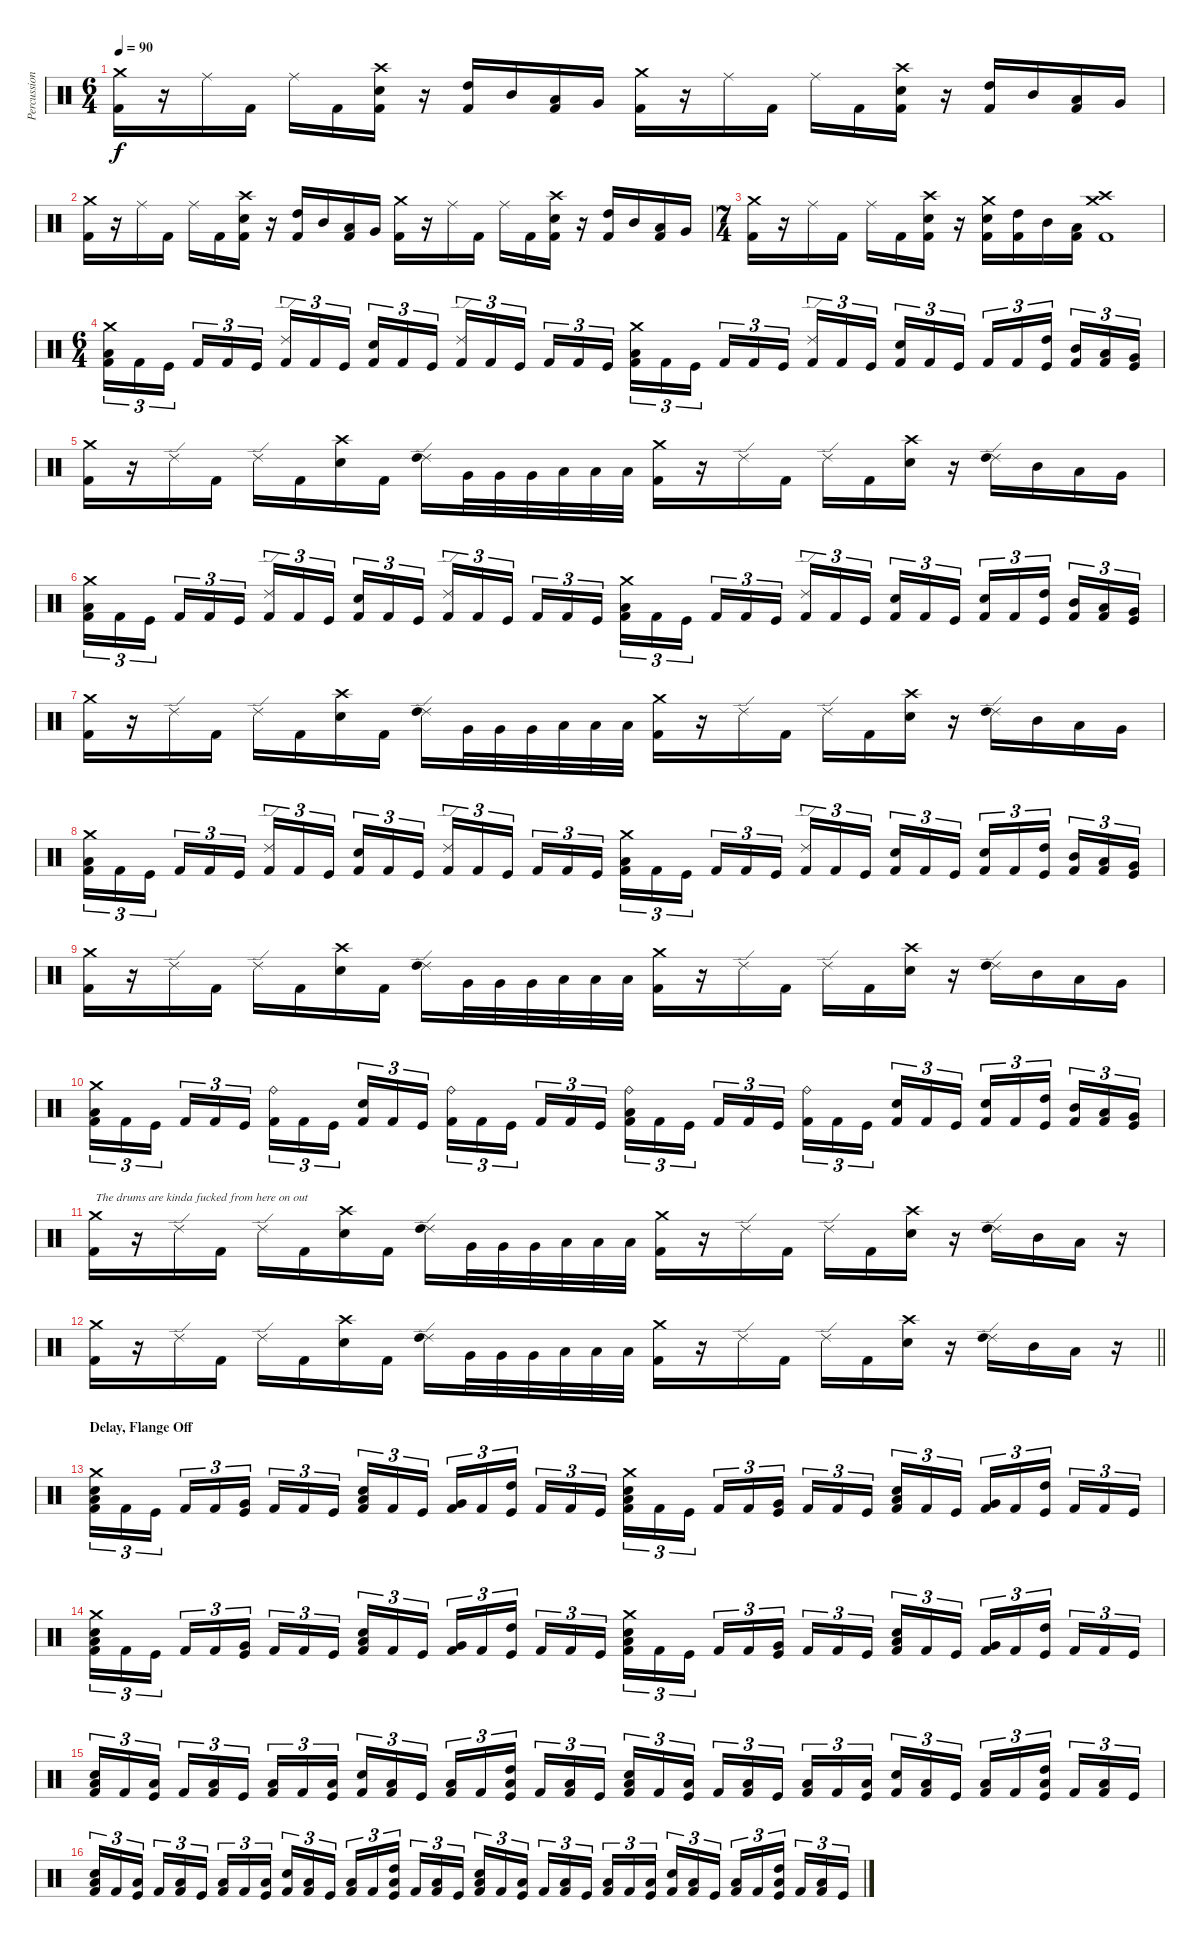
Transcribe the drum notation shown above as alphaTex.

\track ("Percussion" "Percussion") {instrument percussion}
\staff {score}
\articulation defaults
\ts (6 4)
\tempo 90
\clef neutral
\ks c
("Crash medium (hit)" "Kick (hit) 2").16{dy f} r.16 "Ride (middle)".16 "Kick (hit) 2".16 "Ride (middle)".16 "Kick (hit) 2".16 ("Crash high (hit)" "Electric Snare (hit)" "Kick (hit) 2").16 r.16 ("High Tom (hit)" "Kick (hit) 2").16 "Mid Tom (hit)".16 ("Low Tom (hit)" "Kick (hit) 2").16 "Very Low Tom (hit)".16 ("Crash medium (hit)" "Kick (hit) 2").16 r.16 "Ride (middle)".16 "Kick (hit) 2".16 "Ride (middle)".16 "Kick (hit) 2".16 ("Crash high (hit)" "Electric Snare (hit)" "Kick (hit) 2").16 r.16 ("High Tom (hit)" "Kick (hit) 2").16 "Mid Tom (hit)".16 ("Low Tom (hit)" "Kick (hit) 2").16 "Very Low Tom (hit)".16 |
("Crash medium (hit)" "Kick (hit) 2").16 r.16 "Ride (middle)".16 "Kick (hit) 2".16 "Ride (middle)".16 "Kick (hit) 2".16 ("Crash high (hit)" "Electric Snare (hit)" "Kick (hit) 2").16 r.16 ("High Tom (hit)" "Kick (hit) 2").16 "Mid Tom (hit)".16 ("Low Tom (hit)" "Kick (hit) 2").16 "Very Low Tom (hit)".16 ("Crash medium (hit)" "Kick (hit) 2").16 r.16 "Ride (middle)".16 "Kick (hit) 2".16 "Ride (middle)".16 "Kick (hit) 2".16 ("Crash high (hit)" "Electric Snare (hit)" "Kick (hit) 2").16 r.16 ("High Tom (hit)" "Kick (hit) 2").16 "Mid Tom (hit)".16 ("Low Tom (hit)" "Kick (hit) 2").16 "Very Low Tom (hit)".16 |
\ts (7 4)
("Crash medium (hit)" "Kick (hit) 2").16 r.16 "Ride (middle)".16 "Kick (hit) 2".16 "Ride (middle)".16 "Kick (hit) 2".16 ("Crash high (hit)" "Electric Snare (hit)" "Kick (hit) 2").16 r.16 ("Crash medium (hit)" "Electric Snare (hit)" "Kick (hit) 2").16 ("High Tom (hit)" "Kick (hit) 2").16 "Mid Tom (hit)".16 ("Low Tom (hit)" "Kick (hit) 2").16 ("Crash medium (hit)" "Crash high (hit)" "Kick (hit) 2").1 |
\ts (6 4)
("Crash medium (hit)" "Low Floor Tom (hit)" "Kick (hit) 2").16{tu (3 2)} "Kick (hit) 2".16{tu (3 2)} "Kick (hit)".16{tu (3 2)} "Kick (hit) 2".16{tu (3 2)} "Kick (hit) 2".16{tu (3 2)} "Kick (hit)".16{tu (3 2)} ("Ride (edge) 2" "Kick (hit) 2").16{tu (3 2)} "Kick (hit) 2".16{tu (3 2)} "Kick (hit)".16{tu (3 2)} ("Electric Snare (hit)" "Kick (hit) 2").16{tu (3 2)} "Kick (hit) 2".16{tu (3 2)} "Kick (hit)".16{tu (3 2)} ("Ride (edge) 2" "Kick (hit) 2").16{tu (3 2)} "Kick (hit) 2".16{tu (3 2)} "Kick (hit)".16{tu (3 2)} "Kick (hit) 2".16{tu (3 2)} "Kick (hit) 2".16{tu (3 2)} "Kick (hit)".16{tu (3 2)} ("Crash medium (hit)" "Low Floor Tom (hit)" "Kick (hit) 2").16{tu (3 2)} "Kick (hit) 2".16{tu (3 2)} "Kick (hit)".16{tu (3 2)} "Kick (hit) 2".16{tu (3 2)} "Kick (hit) 2".16{tu (3 2)} "Kick (hit)".16{tu (3 2)} ("Ride (edge) 2" "Kick (hit) 2").16{tu (3 2)} "Kick (hit) 2".16{tu (3 2)} "Kick (hit)".16{tu (3 2)} ("Electric Snare (hit)" "Kick (hit) 2").16{tu (3 2)} "Kick (hit) 2".16{tu (3 2)} "Kick (hit)".16{tu (3 2)} "Kick (hit) 2".16{tu (3 2)} "Kick (hit) 2".16{tu (3 2)} ("High Tom (hit)" "Kick (hit)").16{tu (3 2)} ("Mid Tom (hit)" "Kick (hit) 2").16{tu (3 2)} ("Low Tom (hit)" "Kick (hit) 2").16{tu (3 2)} ("Very Low Tom (hit)" "Kick (hit)").16{tu (3 2)} |
("Crash medium (hit)" "Kick (hit) 2").16 r.16 "Ride (edge) 2".16 "Kick (hit) 2".16 "Ride (edge) 2".16 "Kick (hit) 2".16 ("Crash high (hit)" "Electric Snare (hit)").16 "Kick (hit) 2".16 ("Ride (edge) 2" "High Tom (hit)").16 "Very Low Tom (hit)".32 "Very Low Tom (hit)".32 "Very Low Tom (hit)".32 "Low Floor Tom (hit)".32 "Low Floor Tom (hit)".32 "Low Floor Tom (hit)".32 ("Crash medium (hit)" "Kick (hit) 2").16 r.16 "Ride (edge) 2".16 "Kick (hit) 2".16 "Ride (edge) 2".16 "Kick (hit) 2".16 ("Crash high (hit)" "Electric Snare (hit)").16 r.16 ("Ride (edge) 2" "High Tom (hit)").16 "Mid Tom (hit)".16 "Low Tom (hit)".16 "Very Low Tom (hit)".16 |
("Crash medium (hit)" "Low Floor Tom (hit)" "Kick (hit) 2").16{tu (3 2)} "Kick (hit) 2".16{tu (3 2)} "Kick (hit)".16{tu (3 2)} "Kick (hit) 2".16{tu (3 2)} "Kick (hit) 2".16{tu (3 2)} "Kick (hit)".16{tu (3 2)} ("Ride (edge) 2" "Kick (hit) 2").16{tu (3 2)} "Kick (hit) 2".16{tu (3 2)} "Kick (hit)".16{tu (3 2)} ("Electric Snare (hit)" "Kick (hit) 2").16{tu (3 2)} "Kick (hit) 2".16{tu (3 2)} "Kick (hit)".16{tu (3 2)} ("Ride (edge) 2" "Kick (hit) 2").16{tu (3 2)} "Kick (hit) 2".16{tu (3 2)} "Kick (hit)".16{tu (3 2)} "Kick (hit) 2".16{tu (3 2)} "Kick (hit) 2".16{tu (3 2)} "Kick (hit)".16{tu (3 2)} ("Crash medium (hit)" "Low Floor Tom (hit)" "Kick (hit) 2").16{tu (3 2)} "Kick (hit) 2".16{tu (3 2)} "Kick (hit)".16{tu (3 2)} "Kick (hit) 2".16{tu (3 2)} "Kick (hit) 2".16{tu (3 2)} "Kick (hit)".16{tu (3 2)} ("Ride (edge) 2" "Kick (hit) 2").16{tu (3 2)} "Kick (hit) 2".16{tu (3 2)} "Kick (hit)".16{tu (3 2)} ("Electric Snare (hit)" "Kick (hit) 2").16{tu (3 2)} "Kick (hit) 2".16{tu (3 2)} "Kick (hit)".16{tu (3 2)} ("Electric Snare (hit)" "Kick (hit) 2").16{tu (3 2)} "Kick (hit) 2".16{tu (3 2)} ("High Tom (hit)" "Kick (hit)").16{tu (3 2)} ("Mid Tom (hit)" "Kick (hit) 2").16{tu (3 2)} ("Low Tom (hit)" "Kick (hit) 2").16{tu (3 2)} ("Very Low Tom (hit)" "Kick (hit)").16{tu (3 2)} |
("Crash medium (hit)" "Kick (hit) 2").16 r.16 "Ride (edge) 2".16 "Kick (hit) 2".16 "Ride (edge) 2".16 "Kick (hit) 2".16 ("Crash high (hit)" "Electric Snare (hit)").16 "Kick (hit) 2".16 ("Ride (edge) 2" "High Tom (hit)").16 "Very Low Tom (hit)".32 "Very Low Tom (hit)".32 "Very Low Tom (hit)".32 "Low Floor Tom (hit)".32 "Low Floor Tom (hit)".32 "Low Floor Tom (hit)".32 ("Crash medium (hit)" "Kick (hit) 2").16 r.16 "Ride (edge) 2".16 "Kick (hit) 2".16 "Ride (edge) 2".16 "Kick (hit) 2".16 ("Crash high (hit)" "Electric Snare (hit)").16 r.16 ("Ride (edge) 2" "High Tom (hit)").16 "Mid Tom (hit)".16 "Low Tom (hit)".16 "Very Low Tom (hit)".16 |
("Crash medium (hit)" "Low Floor Tom (hit)" "Kick (hit) 2").16{tu (3 2)} "Kick (hit) 2".16{tu (3 2)} "Kick (hit)".16{tu (3 2)} "Kick (hit) 2".16{tu (3 2)} "Kick (hit) 2".16{tu (3 2)} "Kick (hit)".16{tu (3 2)} ("Ride (edge) 2" "Kick (hit) 2").16{tu (3 2)} "Kick (hit) 2".16{tu (3 2)} "Kick (hit)".16{tu (3 2)} ("Electric Snare (hit)" "Kick (hit) 2").16{tu (3 2)} "Kick (hit) 2".16{tu (3 2)} "Kick (hit)".16{tu (3 2)} ("Ride (edge) 2" "Kick (hit) 2").16{tu (3 2)} "Kick (hit) 2".16{tu (3 2)} "Kick (hit)".16{tu (3 2)} "Kick (hit) 2".16{tu (3 2)} "Kick (hit) 2".16{tu (3 2)} "Kick (hit)".16{tu (3 2)} ("Crash medium (hit)" "Low Floor Tom (hit)" "Kick (hit) 2").16{tu (3 2)} "Kick (hit) 2".16{tu (3 2)} "Kick (hit)".16{tu (3 2)} "Kick (hit) 2".16{tu (3 2)} "Kick (hit) 2".16{tu (3 2)} "Kick (hit)".16{tu (3 2)} ("Ride (edge) 2" "Kick (hit) 2").16{tu (3 2)} "Kick (hit) 2".16{tu (3 2)} "Kick (hit)".16{tu (3 2)} ("Electric Snare (hit)" "Kick (hit) 2").16{tu (3 2)} "Kick (hit) 2".16{tu (3 2)} "Kick (hit)".16{tu (3 2)} ("Electric Snare (hit)" "Kick (hit) 2").16{tu (3 2)} "Kick (hit) 2".16{tu (3 2)} ("High Tom (hit)" "Kick (hit)").16{tu (3 2)} ("Mid Tom (hit)" "Kick (hit) 2").16{tu (3 2)} ("Low Tom (hit)" "Kick (hit) 2").16{tu (3 2)} ("Very Low Tom (hit)" "Kick (hit)").16{tu (3 2)} |
("Crash medium (hit)" "Kick (hit) 2").16 r.16 "Ride (edge) 2".16 "Kick (hit) 2".16 "Ride (edge) 2".16 "Kick (hit) 2".16 ("Crash high (hit)" "Electric Snare (hit)").16 "Kick (hit) 2".16 ("Ride (edge) 2" "High Tom (hit)").16 "Very Low Tom (hit)".32 "Very Low Tom (hit)".32 "Very Low Tom (hit)".32 "Low Floor Tom (hit)".32 "Low Floor Tom (hit)".32 "Low Floor Tom (hit)".32 ("Crash medium (hit)" "Kick (hit) 2").16 r.16 "Ride (edge) 2".16 "Kick (hit) 2".16 "Ride (edge) 2".16 "Kick (hit) 2".16 ("Crash high (hit)" "Electric Snare (hit)").16 r.16 ("Ride (edge) 2" "High Tom (hit)").16 "Mid Tom (hit)".16 "Low Tom (hit)".16 "Very Low Tom (hit)".16 |
("Crash medium (hit)" "Low Floor Tom (hit)" "Kick (hit) 2").16{tu (3 2)} "Kick (hit) 2".16{tu (3 2)} "Kick (hit)".16{tu (3 2)} "Kick (hit) 2".16{tu (3 2)} "Kick (hit) 2".16{tu (3 2)} "Kick (hit)".16{tu (3 2)} ("Ride (bell)" "Kick (hit) 2").16{tu (3 2)} "Kick (hit) 2".16{tu (3 2)} "Kick (hit)".16{tu (3 2)} ("Electric Snare (hit)" "Kick (hit) 2").16{tu (3 2)} "Kick (hit) 2".16{tu (3 2)} "Kick (hit)".16{tu (3 2)} ("Ride (bell)" "Kick (hit) 2").16{tu (3 2)} "Kick (hit) 2".16{tu (3 2)} "Kick (hit)".16{tu (3 2)} "Kick (hit) 2".16{tu (3 2)} "Kick (hit) 2".16{tu (3 2)} "Kick (hit)".16{tu (3 2)} ("Ride (bell)" "Low Floor Tom (hit)" "Kick (hit) 2").16{tu (3 2)} "Kick (hit) 2".16{tu (3 2)} "Kick (hit)".16{tu (3 2)} "Kick (hit) 2".16{tu (3 2)} "Kick (hit) 2".16{tu (3 2)} "Kick (hit)".16{tu (3 2)} ("Ride (bell)" "Kick (hit) 2").16{tu (3 2)} "Kick (hit) 2".16{tu (3 2)} "Kick (hit)".16{tu (3 2)} ("Electric Snare (hit)" "Kick (hit) 2").16{tu (3 2)} "Kick (hit) 2".16{tu (3 2)} "Kick (hit)".16{tu (3 2)} ("Electric Snare (hit)" "Kick (hit) 2").16{tu (3 2)} "Kick (hit) 2".16{tu (3 2)} ("High Tom (hit)" "Kick (hit)").16{tu (3 2)} ("Mid Tom (hit)" "Kick (hit) 2").16{tu (3 2)} ("Low Tom (hit)" "Kick (hit) 2").16{tu (3 2)} ("Very Low Tom (hit)" "Kick (hit)").16{tu (3 2)} |
("Crash medium (hit)" "Kick (hit) 2").16{txt "The drums are kinda fucked from here on out"} r.16 "Ride (edge) 2".16 "Kick (hit) 2".16 "Ride (edge) 2".16 "Kick (hit) 2".16 ("Crash high (hit)" "Electric Snare (hit)").16 "Kick (hit) 2".16 ("Ride (edge) 2" "High Tom (hit)").16 "Very Low Tom (hit)".32 "Very Low Tom (hit)".32 "Very Low Tom (hit)".32 "Low Floor Tom (hit)".32 "Low Floor Tom (hit)".32 "Low Floor Tom (hit)".32 ("Crash medium (hit)" "Kick (hit) 2").16 r.16 "Ride (edge) 2".16 "Kick (hit) 2".16 "Ride (edge) 2".16 "Kick (hit) 2".16 ("Crash high (hit)" "Electric Snare (hit)").16 r.16 ("Ride (edge) 2" "High Tom (hit)").16 "Mid Tom (hit)".16 "Low Tom (hit)".16 r.16 |
\barLineRight lightlight
("Crash medium (hit)" "Kick (hit) 2").16 r.16 "Ride (edge) 2".16 "Kick (hit) 2".16 "Ride (edge) 2".16 "Kick (hit) 2".16 ("Crash high (hit)" "Electric Snare (hit)").16 "Kick (hit) 2".16 ("Ride (edge) 2" "High Tom (hit)").16 "Very Low Tom (hit)".32 "Very Low Tom (hit)".32 "Very Low Tom (hit)".32 "Low Floor Tom (hit)".32 "Low Floor Tom (hit)".32 "Low Floor Tom (hit)".32 ("Crash medium (hit)" "Kick (hit) 2").16 r.16 "Ride (edge) 2".16 "Kick (hit) 2".16 "Ride (edge) 2".16 "Kick (hit) 2".16 ("Crash high (hit)" "Electric Snare (hit)").16 r.16 ("Ride (edge) 2" "High Tom (hit)").16 "Mid Tom (hit)".16 "Low Tom (hit)".16 r.16 |
\section ("" "Delay, Flange Off")
("Crash medium (hit)" "Low Floor Tom (hit)" "Electric Snare (hit)" "Kick (hit) 2").16{tu (3 2)} "Kick (hit) 2".16{tu (3 2)} "Kick (hit)".16{tu (3 2)} "Kick (hit) 2".16{tu (3 2)} "Kick (hit) 2".16{tu (3 2)} ("Very Low Tom (hit)" "Kick (hit)").16{tu (3 2)} "Kick (hit) 2".16{tu (3 2)} "Kick (hit) 2".16{tu (3 2)} "Kick (hit)".16{tu (3 2)} ("Low Floor Tom (hit)" "Electric Snare (hit)" "Kick (hit) 2").16{tu (3 2)} "Kick (hit) 2".16{tu (3 2)} "Kick (hit)".16{tu (3 2)} ("Very Low Tom (hit)" "Kick (hit) 2").16{tu (3 2)} "Kick (hit) 2".16{tu (3 2)} ("High Tom (hit)" "Kick (hit)").16{tu (3 2)} "Kick (hit) 2".16{tu (3 2)} "Kick (hit) 2".16{tu (3 2)} "Kick (hit)".16{tu (3 2)} ("Crash medium (hit)" "Low Floor Tom (hit)" "Electric Snare (hit)" "Kick (hit) 2").16{tu (3 2)} "Kick (hit) 2".16{tu (3 2)} "Kick (hit)".16{tu (3 2)} "Kick (hit) 2".16{tu (3 2)} "Kick (hit) 2".16{tu (3 2)} ("Very Low Tom (hit)" "Kick (hit)").16{tu (3 2)} "Kick (hit) 2".16{tu (3 2)} "Kick (hit) 2".16{tu (3 2)} "Kick (hit)".16{tu (3 2)} ("Low Floor Tom (hit)" "Electric Snare (hit)" "Kick (hit) 2").16{tu (3 2)} "Kick (hit) 2".16{tu (3 2)} "Kick (hit)".16{tu (3 2)} ("Very Low Tom (hit)" "Kick (hit) 2").16{tu (3 2)} "Kick (hit) 2".16{tu (3 2)} ("High Tom (hit)" "Kick (hit)").16{tu (3 2)} "Kick (hit) 2".16{tu (3 2)} "Kick (hit) 2".16{tu (3 2)} "Kick (hit)".16{tu (3 2)} |
("Crash medium (hit)" "Low Floor Tom (hit)" "Electric Snare (hit)" "Kick (hit) 2").16{tu (3 2)} "Kick (hit) 2".16{tu (3 2)} "Kick (hit)".16{tu (3 2)} "Kick (hit) 2".16{tu (3 2)} "Kick (hit) 2".16{tu (3 2)} ("Very Low Tom (hit)" "Kick (hit)").16{tu (3 2)} "Kick (hit) 2".16{tu (3 2)} "Kick (hit) 2".16{tu (3 2)} "Kick (hit)".16{tu (3 2)} ("Low Floor Tom (hit)" "Electric Snare (hit)" "Kick (hit) 2").16{tu (3 2)} "Kick (hit) 2".16{tu (3 2)} "Kick (hit)".16{tu (3 2)} ("Very Low Tom (hit)" "Kick (hit) 2").16{tu (3 2)} "Kick (hit) 2".16{tu (3 2)} ("High Tom (hit)" "Kick (hit)").16{tu (3 2)} "Kick (hit) 2".16{tu (3 2)} "Kick (hit) 2".16{tu (3 2)} "Kick (hit)".16{tu (3 2)} ("Crash medium (hit)" "Low Floor Tom (hit)" "Electric Snare (hit)" "Kick (hit) 2").16{tu (3 2)} "Kick (hit) 2".16{tu (3 2)} "Kick (hit)".16{tu (3 2)} "Kick (hit) 2".16{tu (3 2)} "Kick (hit) 2".16{tu (3 2)} ("Very Low Tom (hit)" "Kick (hit)").16{tu (3 2)} "Kick (hit) 2".16{tu (3 2)} "Kick (hit) 2".16{tu (3 2)} "Kick (hit)".16{tu (3 2)} ("Low Floor Tom (hit)" "Electric Snare (hit)" "Kick (hit) 2").16{tu (3 2)} "Kick (hit) 2".16{tu (3 2)} "Kick (hit)".16{tu (3 2)} ("Very Low Tom (hit)" "Kick (hit) 2").16{tu (3 2)} "Kick (hit) 2".16{tu (3 2)} ("High Tom (hit)" "Kick (hit)").16{tu (3 2)} "Kick (hit) 2".16{tu (3 2)} "Kick (hit) 2".16{tu (3 2)} "Kick (hit)".16{tu (3 2)} |
("Low Floor Tom (hit)" "Electric Snare (hit)" "Kick (hit) 2").16{tu (3 2)} "Kick (hit) 2".16{tu (3 2)} ("Low Floor Tom (hit)" "Kick (hit)").16{tu (3 2)} "Kick (hit) 2".16{tu (3 2)} ("Low Floor Tom (hit)" "Kick (hit) 2").16{tu (3 2)} "Kick (hit)".16{tu (3 2)} ("Low Floor Tom (hit)" "Kick (hit) 2").16{tu (3 2)} "Kick (hit) 2".16{tu (3 2)} ("Low Floor Tom (hit)" "Kick (hit)").16{tu (3 2)} ("Electric Snare (hit)" "Kick (hit) 2").16{tu (3 2)} ("Low Floor Tom (hit)" "Kick (hit) 2").16{tu (3 2)} "Kick (hit)".16{tu (3 2)} ("Low Floor Tom (hit)" "Kick (hit) 2").16{tu (3 2)} "Kick (hit) 2".16{tu (3 2)} ("Low Floor Tom (hit)" "High Tom (hit)" "Kick (hit)").16{tu (3 2)} "Kick (hit) 2".16{tu (3 2)} ("Low Floor Tom (hit)" "Kick (hit) 2").16{tu (3 2)} "Kick (hit)".16{tu (3 2)} ("Low Floor Tom (hit)" "Electric Snare (hit)" "Kick (hit) 2").16{tu (3 2)} "Kick (hit) 2".16{tu (3 2)} ("Low Floor Tom (hit)" "Kick (hit)").16{tu (3 2)} "Kick (hit) 2".16{tu (3 2)} ("Low Floor Tom (hit)" "Kick (hit) 2").16{tu (3 2)} "Kick (hit)".16{tu (3 2)} ("Low Floor Tom (hit)" "Kick (hit) 2").16{tu (3 2)} "Kick (hit) 2".16{tu (3 2)} ("Low Floor Tom (hit)" "Kick (hit)").16{tu (3 2)} ("Electric Snare (hit)" "Kick (hit) 2").16{tu (3 2)} ("Low Floor Tom (hit)" "Kick (hit) 2").16{tu (3 2)} "Kick (hit)".16{tu (3 2)} ("Low Floor Tom (hit)" "Kick (hit) 2").16{tu (3 2)} "Kick (hit) 2".16{tu (3 2)} ("Low Floor Tom (hit)" "High Tom (hit)" "Kick (hit)").16{tu (3 2)} "Kick (hit) 2".16{tu (3 2)} ("Low Floor Tom (hit)" "Kick (hit) 2").16{tu (3 2)} "Kick (hit)".16{tu (3 2)} |
("Low Floor Tom (hit)" "Electric Snare (hit)" "Kick (hit) 2").16{tu (3 2)} "Kick (hit) 2".16{tu (3 2)} ("Low Floor Tom (hit)" "Kick (hit)").16{tu (3 2)} "Kick (hit) 2".16{tu (3 2)} ("Low Floor Tom (hit)" "Kick (hit) 2").16{tu (3 2)} "Kick (hit)".16{tu (3 2)} ("Low Floor Tom (hit)" "Kick (hit) 2").16{tu (3 2)} "Kick (hit) 2".16{tu (3 2)} ("Low Floor Tom (hit)" "Kick (hit)").16{tu (3 2)} ("Electric Snare (hit)" "Kick (hit) 2").16{tu (3 2)} ("Low Floor Tom (hit)" "Kick (hit) 2").16{tu (3 2)} "Kick (hit)".16{tu (3 2)} ("Low Floor Tom (hit)" "Kick (hit) 2").16{tu (3 2)} "Kick (hit) 2".16{tu (3 2)} ("Low Floor Tom (hit)" "High Tom (hit)" "Kick (hit)").16{tu (3 2)} "Kick (hit) 2".16{tu (3 2)} ("Low Floor Tom (hit)" "Kick (hit) 2").16{tu (3 2)} "Kick (hit)".16{tu (3 2)} ("Low Floor Tom (hit)" "Electric Snare (hit)" "Kick (hit) 2").16{tu (3 2)} "Kick (hit) 2".16{tu (3 2)} ("Low Floor Tom (hit)" "Kick (hit)").16{tu (3 2)} "Kick (hit) 2".16{tu (3 2)} ("Low Floor Tom (hit)" "Kick (hit) 2").16{tu (3 2)} "Kick (hit)".16{tu (3 2)} ("Low Floor Tom (hit)" "Kick (hit) 2").16{tu (3 2)} "Kick (hit) 2".16{tu (3 2)} ("Low Floor Tom (hit)" "Kick (hit)").16{tu (3 2)} ("Electric Snare (hit)" "Kick (hit) 2").16{tu (3 2)} ("Low Floor Tom (hit)" "Kick (hit) 2").16{tu (3 2)} "Kick (hit)".16{tu (3 2)} ("Low Floor Tom (hit)" "Kick (hit) 2").16{tu (3 2)} "Kick (hit) 2".16{tu (3 2)} ("Low Floor Tom (hit)" "High Tom (hit)" "Kick (hit)").16{tu (3 2)} "Kick (hit) 2".16{tu (3 2)} ("Low Floor Tom (hit)" "Kick (hit) 2").16{tu (3 2)} "Kick (hit)".16{tu (3 2)}
